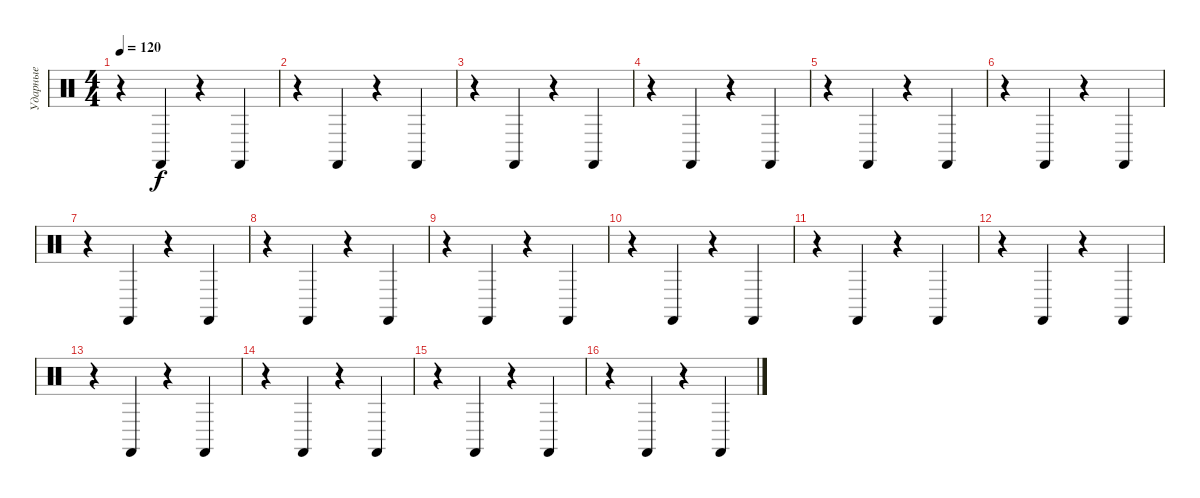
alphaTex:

\track ("Ударные" "Ударные") {instrument percussion}
\staff {score}
\articulation defaults
\ts (4 4)
\tempo 120
\clef neutral
\ks c
r.4{dy f} "Castanets (hit)".4 r.4 "Castanets (hit)".4 |
r.4 "Castanets (hit)".4 r.4 "Castanets (hit)".4 |
r.4 "Castanets (hit)".4 r.4 "Castanets (hit)".4 |
r.4 "Castanets (hit)".4 r.4 "Castanets (hit)".4 |
r.4 "Castanets (hit)".4 r.4 "Castanets (hit)".4 |
r.4 "Castanets (hit)".4 r.4 "Castanets (hit)".4 |
r.4 "Castanets (hit)".4 r.4 "Castanets (hit)".4 |
r.4 "Castanets (hit)".4 r.4 "Castanets (hit)".4 |
r.4 "Castanets (hit)".4 r.4 "Castanets (hit)".4 |
r.4 "Castanets (hit)".4 r.4 "Castanets (hit)".4 |
r.4 "Castanets (hit)".4 r.4 "Castanets (hit)".4 |
r.4 "Castanets (hit)".4 r.4 "Castanets (hit)".4 |
r.4 "Castanets (hit)".4 r.4 "Castanets (hit)".4 |
r.4 "Castanets (hit)".4 r.4 "Castanets (hit)".4 |
r.4 "Castanets (hit)".4 r.4 "Castanets (hit)".4 |
r.4 "Castanets (hit)".4 r.4 "Castanets (hit)".4
